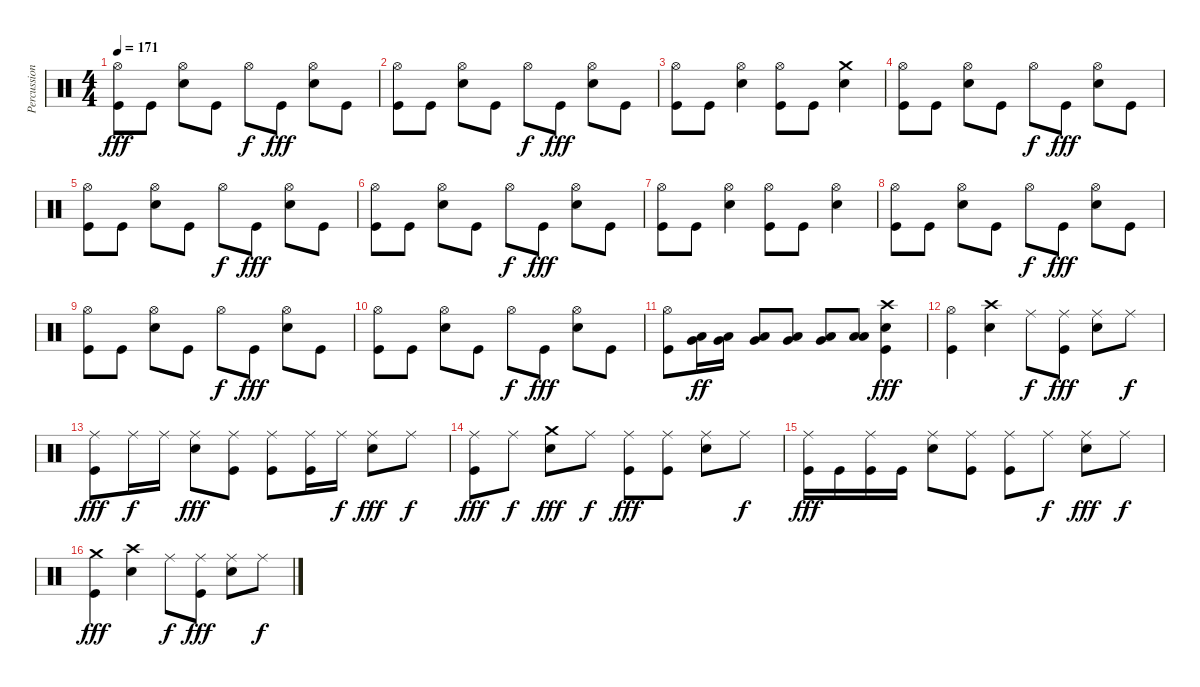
\track ("Percussion" "Percussion") {instrument percussion}
\staff {score}
\articulation defaults
\ts (4 4)
\tempo 171
\clef neutral
\ks c
("Hi-Hat (open)" "Kick (hit)").8{dy fff} "Kick (hit)".8 ("Hi-Hat (open)" "Snare (hit) 2").8 "Kick (hit)".8 "Hi-Hat (open)".8{dy f} "Kick (hit)".8{dy fff} ("Hi-Hat (open)" "Snare (hit) 2").8 "Kick (hit)".8 |
("Hi-Hat (open)" "Kick (hit)").8 "Kick (hit)".8 ("Hi-Hat (open)" "Snare (hit) 2").8 "Kick (hit)".8 "Hi-Hat (open)".8{dy f} "Kick (hit)".8{dy fff} ("Hi-Hat (open)" "Snare (hit) 2").8 "Kick (hit)".8 |
("Hi-Hat (open)" "Kick (hit)").8 "Kick (hit)".8 ("Hi-Hat (open)" "Snare (hit) 2").4 ("Hi-Hat (open)" "Kick (hit)").8 "Kick (hit)".8 ("Crash medium (hit)" "Snare (hit) 2").4 |
("Hi-Hat (open)" "Kick (hit)").8 "Kick (hit)".8 ("Hi-Hat (open)" "Snare (hit) 2").8 "Kick (hit)".8 "Hi-Hat (open)".8{dy f} "Kick (hit)".8{dy fff} ("Hi-Hat (open)" "Snare (hit) 2").8 "Kick (hit)".8 |
("Hi-Hat (open)" "Kick (hit)").8 "Kick (hit)".8 ("Hi-Hat (open)" "Snare (hit) 2").8 "Kick (hit)".8 "Hi-Hat (open)".8{dy f} "Kick (hit)".8{dy fff} ("Hi-Hat (open)" "Snare (hit) 2").8 "Kick (hit)".8 |
("Hi-Hat (open)" "Kick (hit)").8 "Kick (hit)".8 ("Hi-Hat (open)" "Snare (hit) 2").8 "Kick (hit)".8 "Hi-Hat (open)".8{dy f} "Kick (hit)".8{dy fff} ("Hi-Hat (open)" "Snare (hit) 2").8 "Kick (hit)".8 |
("Hi-Hat (open)" "Kick (hit)").8 "Kick (hit)".8 ("Hi-Hat (open)" "Snare (hit) 2").4 ("Hi-Hat (open)" "Kick (hit)").8 "Kick (hit)".8 ("Hi-Hat (open)" "Snare (hit) 2").4 |
("Hi-Hat (open)" "Kick (hit)").8 "Kick (hit)".8 ("Hi-Hat (open)" "Snare (hit) 2").8 "Kick (hit)".8 "Hi-Hat (open)".8{dy f} "Kick (hit)".8{dy fff} ("Hi-Hat (open)" "Snare (hit) 2").8 "Kick (hit)".8 |
("Hi-Hat (open)" "Kick (hit)").8 "Kick (hit)".8 ("Hi-Hat (open)" "Snare (hit) 2").8 "Kick (hit)".8 "Hi-Hat (open)".8{dy f} "Kick (hit)".8{dy fff} ("Hi-Hat (open)" "Snare (hit) 2").8 "Kick (hit)".8 |
("Hi-Hat (open)" "Kick (hit)").8 "Kick (hit)".8 ("Hi-Hat (open)" "Snare (hit) 2").8 "Kick (hit)".8 "Hi-Hat (open)".8{dy f} "Kick (hit)".8{dy fff} ("Hi-Hat (open)" "Snare (hit) 2").8 "Kick (hit)".8 |
("Hi-Hat (open)" "Kick (hit)").8 ("Very Low Tom (hit)" "Low Tom (hit)").16{dy ff} ("Very Low Tom (hit)" "Low Tom (hit)").16 ("Very Low Tom (hit)" "Low Tom (hit)").8 ("Low Floor Tom (hit)" "Very Low Tom (hit)").8 ("Low Floor Tom (hit)" "Very Low Tom (hit)").8 ("Low Floor Tom (hit)" "Low Floor Tom (hit)").8 ("Crash high (hit)" "Snare (hit) 2" "Kick (hit)").4{dy fff} |
("Hi-Hat (open)" "Kick (hit)").4 ("Crash high (hit)" "Snare (hit) 2").4 "Ride (middle)".8{dy f} ("Ride (middle)" "Kick (hit)").8{dy fff} ("Ride (middle)" "Snare (hit) 2").8 "Ride (middle)".8{dy f} |
("Ride (middle)" "Kick (hit)").8{dy fff} "Ride (middle)".16{dy f} "Ride (middle)".16 ("Ride (middle)" "Snare (hit) 2").8{dy fff} ("Ride (middle)" "Kick (hit)").8 ("Ride (middle)" "Kick (hit)").8 ("Ride (middle)" "Kick (hit)").16 "Ride (middle)".16{dy f} ("Ride (middle)" "Snare (hit) 2").8{dy fff} "Ride (middle)".8{dy f} |
("Ride (middle)" "Kick (hit)").8{dy fff} "Ride (middle)".8{dy f} ("Crash medium (hit)" "Snare (hit) 2").8{dy fff} "Ride (middle)".8{dy f} ("Ride (middle)" "Kick (hit)").8{dy fff} ("Ride (middle)" "Kick (hit)").8 ("Ride (middle)" "Snare (hit) 2").8 "Ride (middle)".8{dy f} |
("Ride (middle)" "Kick (hit)").16{dy fff} "Kick (hit)".16 ("Ride (middle)" "Kick (hit)").16 "Kick (hit)".16 ("Ride (middle)" "Snare (hit) 2").8 ("Ride (middle)" "Kick (hit)").8 ("Ride (middle)" "Kick (hit)").8 "Ride (middle)".8{dy f} ("Ride (middle)" "Snare (hit) 2").8{dy fff} "Ride (middle)".8{dy f} |
("Crash medium (hit)" "Kick (hit)").4{dy fff} ("Crash high (hit)" "Snare (hit) 2").4 "Ride (middle)".8{dy f} ("Ride (middle)" "Kick (hit)").8{dy fff} ("Ride (middle)" "Snare (hit) 2").8 "Ride (middle)".8{dy f}
